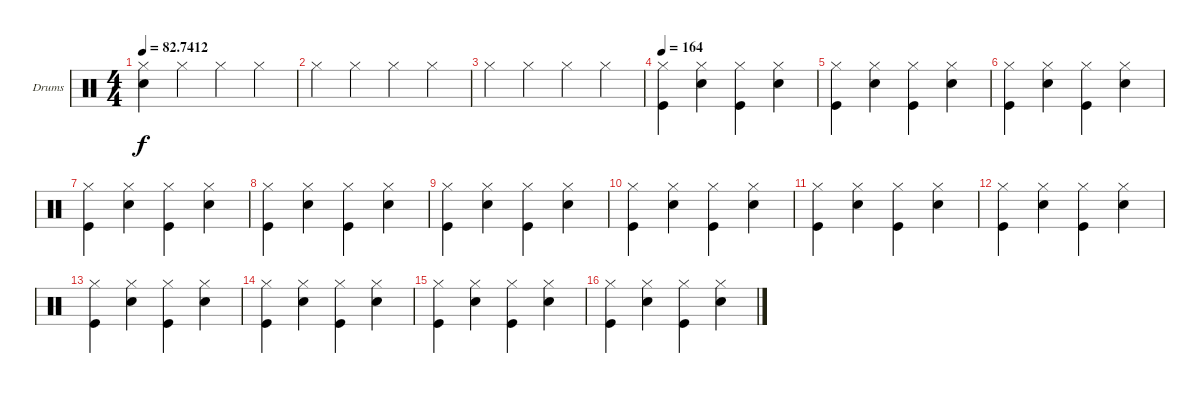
\bracketExtendMode groupsimilarinstruments
\firstSystemTrackNameOrientation horizontal
\otherSystemsTrackNameOrientation horizontal
\track ("Matt Sorum - Drums" "Drums") {instrument percussion}
\staff {score}
\articulation defaults
\ts (4 4)
\tempo
82.7412
\accidentals auto
\clef neutral
\ottava regular
\simile none
\ks aminor
("Snare (hit) 2" "Hi-Hat (closed)").4{dy f} "Hi-Hat (closed)".4 "Hi-Hat (closed)".4 "Hi-Hat (closed)".4 |
"Hi-Hat (closed)".4 "Hi-Hat (closed)".4 "Hi-Hat (closed)".4 "Hi-Hat (closed)".4 |
"Hi-Hat (closed)".4 "Hi-Hat (closed)".4 "Hi-Hat (closed)".4 "Hi-Hat (closed)".4 |
\tempo 164
("Hi-Hat (closed)" "Kick (hit)").4 ("Hi-Hat (closed)" "Snare (hit) 2").4 ("Hi-Hat (closed)" "Kick (hit)").4 ("Hi-Hat (closed)" "Snare (hit) 2").4 |
("Hi-Hat (closed)" "Kick (hit)").4 ("Hi-Hat (closed)" "Snare (hit) 2").4 ("Hi-Hat (closed)" "Kick (hit)").4 ("Hi-Hat (closed)" "Snare (hit) 2").4 |
("Hi-Hat (closed)" "Kick (hit)").4 ("Hi-Hat (closed)" "Snare (hit) 2").4 ("Hi-Hat (closed)" "Kick (hit)").4 ("Hi-Hat (closed)" "Snare (hit) 2").4 |
("Hi-Hat (closed)" "Kick (hit)").4 ("Hi-Hat (closed)" "Snare (hit) 2").4 ("Hi-Hat (closed)" "Kick (hit)").4 ("Hi-Hat (closed)" "Snare (hit) 2").4 |
("Hi-Hat (closed)" "Kick (hit)").4 ("Hi-Hat (closed)" "Snare (hit) 2").4 ("Hi-Hat (closed)" "Kick (hit)").4 ("Hi-Hat (closed)" "Snare (hit) 2").4 |
("Hi-Hat (closed)" "Kick (hit)").4 ("Hi-Hat (closed)" "Snare (hit) 2").4 ("Hi-Hat (closed)" "Kick (hit)").4 ("Hi-Hat (closed)" "Snare (hit) 2").4 |
("Hi-Hat (closed)" "Kick (hit)").4 ("Hi-Hat (closed)" "Snare (hit) 2").4 ("Hi-Hat (closed)" "Kick (hit)").4 ("Hi-Hat (closed)" "Snare (hit) 2").4 |
("Hi-Hat (closed)" "Kick (hit)").4 ("Hi-Hat (closed)" "Snare (hit) 2").4 ("Hi-Hat (closed)" "Kick (hit)").4 ("Hi-Hat (closed)" "Snare (hit) 2").4 |
("Hi-Hat (closed)" "Kick (hit)").4 ("Hi-Hat (closed)" "Snare (hit) 2").4 ("Hi-Hat (closed)" "Kick (hit)").4 ("Hi-Hat (closed)" "Snare (hit) 2").4 |
("Hi-Hat (closed)" "Kick (hit)").4 ("Hi-Hat (closed)" "Snare (hit) 2").4 ("Hi-Hat (closed)" "Kick (hit)").4 ("Hi-Hat (closed)" "Snare (hit) 2").4 |
("Hi-Hat (closed)" "Kick (hit)").4 ("Hi-Hat (closed)" "Snare (hit) 2").4 ("Hi-Hat (closed)" "Kick (hit)").4 ("Hi-Hat (closed)" "Snare (hit) 2").4 |
("Hi-Hat (closed)" "Kick (hit)").4 ("Hi-Hat (closed)" "Snare (hit) 2").4 ("Hi-Hat (closed)" "Kick (hit)").4 ("Hi-Hat (closed)" "Snare (hit) 2").4 |
("Hi-Hat (closed)" "Kick (hit)").4 ("Hi-Hat (closed)" "Snare (hit) 2").4 ("Hi-Hat (closed)" "Kick (hit)").4 ("Hi-Hat (closed)" "Snare (hit) 2").4
